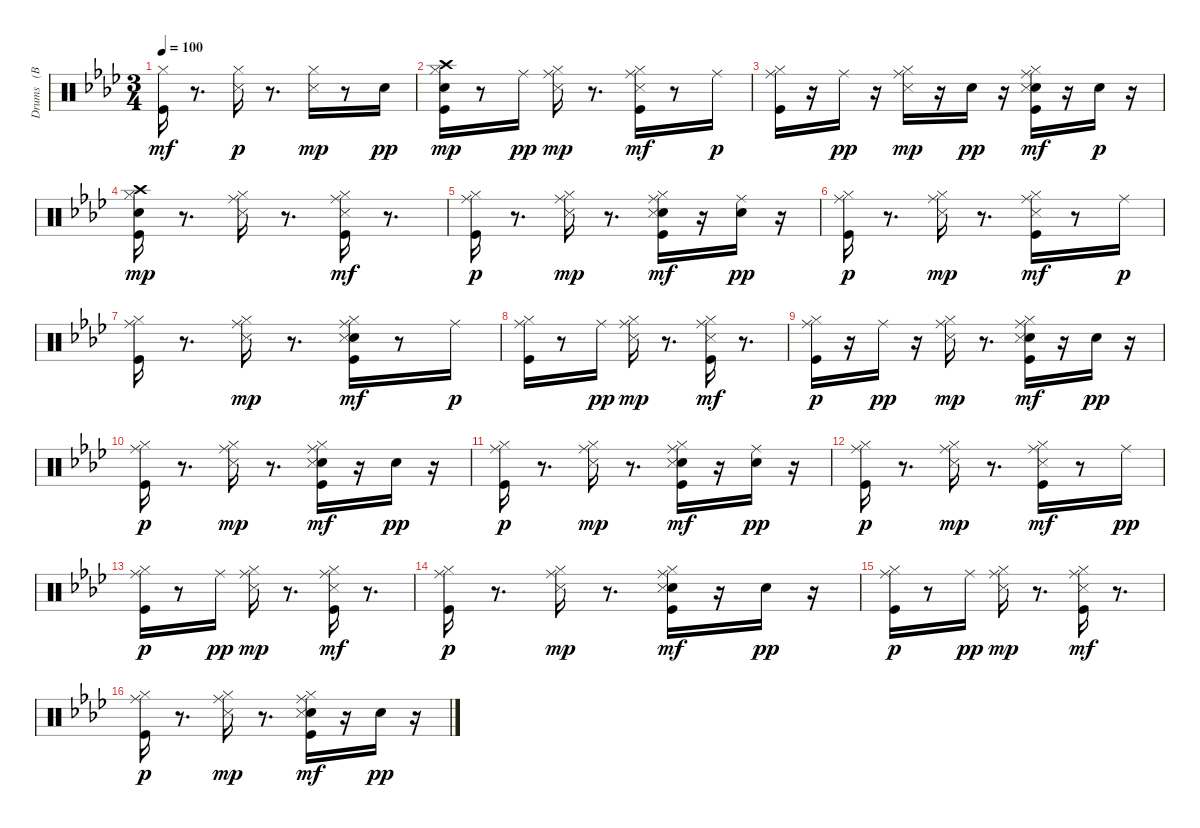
\track ("Drums   (BB)" "Drums   (B") {instrument percussion}
\staff {score}
\articulation defaults
\ts (3 4)
\tempo 100
\clef neutral
\ks fminor
("Kick (hit)" "Hi-Hat (closed)").16{dy mf} r.8{d} ("Hi-Hat (closed)" "Snare (side stick) 3").16{dy p} r.8{d} ("Hi-Hat (closed)" "Snare (side stick) 3").16{dy mp} r.8 "Snare (hit) 2".16{dy pp} |
("Kick (hit)" "Snare (hit) 2" "Hi-Hat (closed)" "Crash high (hit)").16{dy mp} r.8 "Ride (middle)".16{dy pp} ("Hi-Hat (closed)" "Snare (side stick) 3" "Ride (middle)").16{dy mp} r.8{d} ("Kick (hit)" "Hi-Hat (closed)" "Snare (side stick) 3" "Ride (middle)").16{dy mf} r.8 "Ride (middle)".16{dy p} |
("Kick (hit)" "Hi-Hat (closed)" "Ride (middle)").16 r.16 "Ride (middle)".16{dy pp} r.16 ("Hi-Hat (closed)" "Snare (side stick) 3" "Ride (middle)").16{dy mp} r.16 "Snare (hit) 2".16{dy pp} r.16 ("Kick (hit)" "Snare (hit) 2" "Hi-Hat (closed)" "Snare (side stick) 3" "Ride (middle)").16{dy mf} r.16 "Snare (hit) 2".16{dy p} r.16 |
("Kick (hit)" "Snare (hit) 2" "Hi-Hat (closed)" "Crash high (hit)").16{dy mp} r.8{d} ("Hi-Hat (closed)" "Snare (side stick) 3" "Ride (middle)").16 r.8{d} ("Kick (hit)" "Hi-Hat (closed)" "Snare (side stick) 3" "Ride (middle)").16{dy mf} r.8{d} |
("Kick (hit)" "Hi-Hat (closed)" "Ride (middle)").16{dy p} r.8{d} ("Hi-Hat (closed)" "Snare (side stick) 3" "Ride (middle)").16{dy mp} r.8{d} ("Kick (hit)" "Snare (hit) 2" "Hi-Hat (closed)" "Snare (side stick) 3" "Ride (middle)").16{dy mf} r.16 ("Snare (hit) 2" "Ride (middle)").16{dy pp} r.16 |
("Kick (hit)" "Hi-Hat (closed)" "Ride (middle)").16{dy p} r.8{d} ("Hi-Hat (closed)" "Snare (side stick) 3" "Ride (middle)").16{dy mp} r.8{d} ("Kick (hit)" "Hi-Hat (closed)" "Snare (side stick) 3" "Ride (middle)").16{dy mf} r.8 "Ride (middle)".16{dy p} |
("Kick (hit)" "Hi-Hat (closed)" "Ride (middle)").16 r.8{d} ("Hi-Hat (closed)" "Snare (side stick) 3" "Ride (middle)").16{dy mp} r.8{d} ("Kick (hit)" "Snare (hit) 2" "Hi-Hat (closed)" "Snare (side stick) 3" "Ride (middle)").16{dy mf} r.8 "Ride (middle)".16{dy p} |
("Kick (hit)" "Hi-Hat (closed)" "Ride (middle)").16 r.8 "Ride (middle)".16{dy pp} ("Hi-Hat (closed)" "Snare (side stick) 3" "Ride (middle)").16{dy mp} r.8{d} ("Kick (hit)" "Hi-Hat (closed)" "Snare (side stick) 3" "Ride (middle)").16{dy mf} r.8{d} |
("Kick (hit)" "Hi-Hat (closed)" "Ride (middle)").16{dy p} r.16 "Ride (middle)".16{dy pp} r.16 ("Hi-Hat (closed)" "Snare (side stick) 3" "Ride (middle)").16{dy mp} r.8{d} ("Kick (hit)" "Snare (hit) 2" "Hi-Hat (closed)" "Snare (side stick) 3" "Ride (middle)").16{dy mf} r.16 "Snare (hit) 2".16{dy pp} r.16 |
("Kick (hit)" "Hi-Hat (closed)" "Ride (middle)").16{dy p} r.8{d} ("Hi-Hat (closed)" "Snare (side stick) 3" "Ride (middle)").16{dy mp} r.8{d} ("Kick (hit)" "Snare (hit) 2" "Hi-Hat (closed)" "Snare (side stick) 3" "Ride (middle)").16{dy mf} r.16 "Snare (hit) 2".16{dy pp} r.16 |
("Kick (hit)" "Hi-Hat (closed)" "Ride (middle)").16{dy p} r.8{d} ("Hi-Hat (closed)" "Snare (side stick) 3" "Ride (middle)").16{dy mp} r.8{d} ("Kick (hit)" "Snare (hit) 2" "Hi-Hat (closed)" "Snare (side stick) 3" "Ride (middle)").16{dy mf} r.16 ("Snare (hit) 2" "Ride (middle)").16{dy pp} r.16 |
("Kick (hit)" "Hi-Hat (closed)" "Ride (middle)").16{dy p} r.8{d} ("Hi-Hat (closed)" "Snare (side stick) 3" "Ride (middle)").16{dy mp} r.8{d} ("Kick (hit)" "Hi-Hat (closed)" "Snare (side stick) 3" "Ride (middle)").16{dy mf} r.8 "Ride (middle)".16{dy pp} |
("Kick (hit)" "Hi-Hat (closed)" "Ride (middle)").16{dy p} r.8 "Ride (middle)".16{dy pp} ("Hi-Hat (closed)" "Snare (side stick) 3" "Ride (middle)").16{dy mp} r.8{d} ("Kick (hit)" "Hi-Hat (closed)" "Snare (side stick) 3" "Ride (middle)").16{dy mf} r.8{d} |
("Kick (hit)" "Hi-Hat (closed)" "Ride (middle)").16{dy p} r.8{d} ("Hi-Hat (closed)" "Snare (side stick) 3" "Ride (middle)").16{dy mp} r.8{d} ("Kick (hit)" "Snare (hit) 2" "Hi-Hat (closed)" "Snare (side stick) 3" "Ride (middle)").16{dy mf} r.16 "Snare (hit) 2".16{dy pp} r.16 |
("Kick (hit)" "Hi-Hat (closed)" "Ride (middle)").16{dy p} r.8 "Ride (middle)".16{dy pp} ("Hi-Hat (closed)" "Snare (side stick) 3" "Ride (middle)").16{dy mp} r.8{d} ("Kick (hit)" "Hi-Hat (closed)" "Snare (side stick) 3" "Ride (middle)").16{dy mf} r.8{d} |
("Kick (hit)" "Hi-Hat (closed)" "Ride (middle)").16{dy p} r.8{d} ("Hi-Hat (closed)" "Snare (side stick) 3" "Ride (middle)").16{dy mp} r.8{d} ("Kick (hit)" "Snare (hit) 2" "Hi-Hat (closed)" "Snare (side stick) 3" "Ride (middle)").16{dy mf} r.16 "Snare (hit) 2".16{dy pp} r.16
